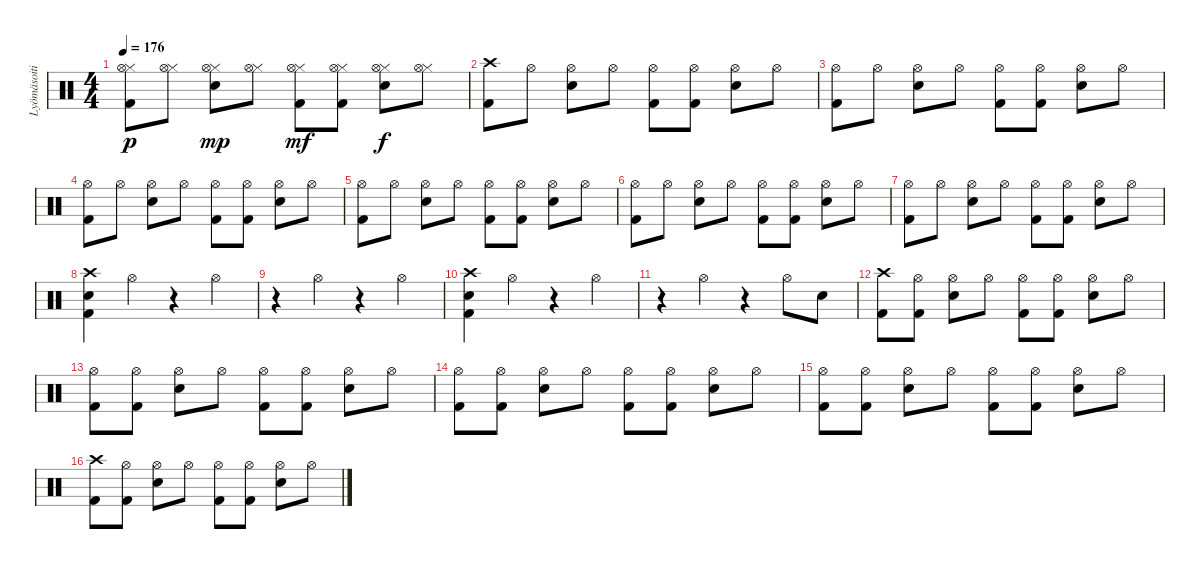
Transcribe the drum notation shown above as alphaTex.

\track ("Lyömäsoitin" "Lyömäsoiti") {instrument percussion}
\staff {score}
\articulation defaults
\ts (4 4)
\tempo 176
\clef neutral
\ks c
("Hi-Hat (closed)" "Hi-Hat (open)" "Kick (hit) 2").8{dy p} ("Hi-Hat (closed)" "Hi-Hat (open)").8 ("Hi-Hat (closed)" "Hi-Hat (open)" "Electric Snare (hit)").8{dy mp} ("Hi-Hat (closed)" "Hi-Hat (open)").8 ("Hi-Hat (closed)" "Hi-Hat (open)" "Kick (hit) 2").8{dy mf} ("Hi-Hat (closed)" "Hi-Hat (open)" "Kick (hit) 2").8 ("Hi-Hat (closed)" "Hi-Hat (open)" "Electric Snare (hit)").8{dy f} ("Hi-Hat (closed)" "Hi-Hat (open)").8 |
("Crash high (hit)" "Kick (hit) 2").8 "Hi-Hat (open)".8 ("Hi-Hat (open)" "Electric Snare (hit)").8 "Hi-Hat (open)".8 ("Hi-Hat (open)" "Kick (hit) 2").8 ("Hi-Hat (open)" "Kick (hit) 2").8 ("Hi-Hat (open)" "Electric Snare (hit)").8 "Hi-Hat (open)".8 |
("Hi-Hat (open)" "Kick (hit) 2").8 "Hi-Hat (open)".8 ("Hi-Hat (open)" "Electric Snare (hit)").8 "Hi-Hat (open)".8 ("Hi-Hat (open)" "Kick (hit) 2").8 ("Hi-Hat (open)" "Kick (hit) 2").8 ("Hi-Hat (open)" "Electric Snare (hit)").8 "Hi-Hat (open)".8 |
("Hi-Hat (open)" "Kick (hit) 2").8 "Hi-Hat (open)".8 ("Hi-Hat (open)" "Electric Snare (hit)").8 "Hi-Hat (open)".8 ("Hi-Hat (open)" "Kick (hit) 2").8 ("Hi-Hat (open)" "Kick (hit) 2").8 ("Hi-Hat (open)" "Electric Snare (hit)").8 "Hi-Hat (open)".8 |
("Hi-Hat (open)" "Kick (hit) 2").8 "Hi-Hat (open)".8 ("Hi-Hat (open)" "Electric Snare (hit)").8 "Hi-Hat (open)".8 ("Hi-Hat (open)" "Kick (hit) 2").8 ("Hi-Hat (open)" "Kick (hit) 2").8 ("Hi-Hat (open)" "Electric Snare (hit)").8 "Hi-Hat (open)".8 |
("Hi-Hat (open)" "Kick (hit) 2").8 "Hi-Hat (open)".8 ("Hi-Hat (open)" "Electric Snare (hit)").8 "Hi-Hat (open)".8 ("Hi-Hat (open)" "Kick (hit) 2").8 ("Hi-Hat (open)" "Kick (hit) 2").8 ("Hi-Hat (open)" "Electric Snare (hit)").8 "Hi-Hat (open)".8 |
("Hi-Hat (open)" "Kick (hit) 2").8 "Hi-Hat (open)".8 ("Hi-Hat (open)" "Electric Snare (hit)").8 "Hi-Hat (open)".8 ("Hi-Hat (open)" "Kick (hit) 2").8 ("Hi-Hat (open)" "Kick (hit) 2").8 ("Hi-Hat (open)" "Electric Snare (hit)").8 "Hi-Hat (open)".8 |
("Crash high (hit)" "Electric Snare (hit)" "Kick (hit) 2").4 "Hi-Hat (open)".4 r.4 "Hi-Hat (open)".4 |
r.4 "Hi-Hat (open)".4 r.4 "Hi-Hat (open)".4 |
("Crash high (hit)" "Electric Snare (hit)" "Kick (hit) 2").4 "Hi-Hat (open)".4 r.4 "Hi-Hat (open)".4 |
r.4 "Hi-Hat (open)".4 r.4 "Hi-Hat (open)".8 "Electric Snare (hit)".8 |
("Crash high (hit)" "Kick (hit) 2").8 ("Hi-Hat (open)" "Kick (hit) 2").8 ("Hi-Hat (open)" "Electric Snare (hit)").8 "Hi-Hat (open)".8 ("Hi-Hat (open)" "Kick (hit) 2").8 ("Hi-Hat (open)" "Kick (hit) 2").8 ("Hi-Hat (open)" "Electric Snare (hit)").8 "Hi-Hat (open)".8 |
("Hi-Hat (open)" "Kick (hit) 2").8 ("Hi-Hat (open)" "Kick (hit) 2").8 ("Hi-Hat (open)" "Electric Snare (hit)").8 "Hi-Hat (open)".8 ("Hi-Hat (open)" "Kick (hit) 2").8 ("Hi-Hat (open)" "Kick (hit) 2").8 ("Hi-Hat (open)" "Electric Snare (hit)").8 "Hi-Hat (open)".8 |
("Hi-Hat (open)" "Kick (hit) 2").8 ("Hi-Hat (open)" "Kick (hit) 2").8 ("Hi-Hat (open)" "Electric Snare (hit)").8 "Hi-Hat (open)".8 ("Hi-Hat (open)" "Kick (hit) 2").8 ("Hi-Hat (open)" "Kick (hit) 2").8 ("Hi-Hat (open)" "Electric Snare (hit)").8 "Hi-Hat (open)".8 |
("Hi-Hat (open)" "Kick (hit) 2").8 ("Hi-Hat (open)" "Kick (hit) 2").8 ("Hi-Hat (open)" "Electric Snare (hit)").8 "Hi-Hat (open)".8 ("Hi-Hat (open)" "Kick (hit) 2").8 ("Hi-Hat (open)" "Kick (hit) 2").8 ("Hi-Hat (open)" "Electric Snare (hit)").8 "Hi-Hat (open)".8 |
("Crash high (hit)" "Kick (hit) 2").8 ("Hi-Hat (open)" "Kick (hit) 2").8 ("Hi-Hat (open)" "Electric Snare (hit)").8 "Hi-Hat (open)".8 ("Hi-Hat (open)" "Kick (hit) 2").8 ("Hi-Hat (open)" "Kick (hit) 2").8 ("Hi-Hat (open)" "Electric Snare (hit)").8 "Hi-Hat (open)".8
